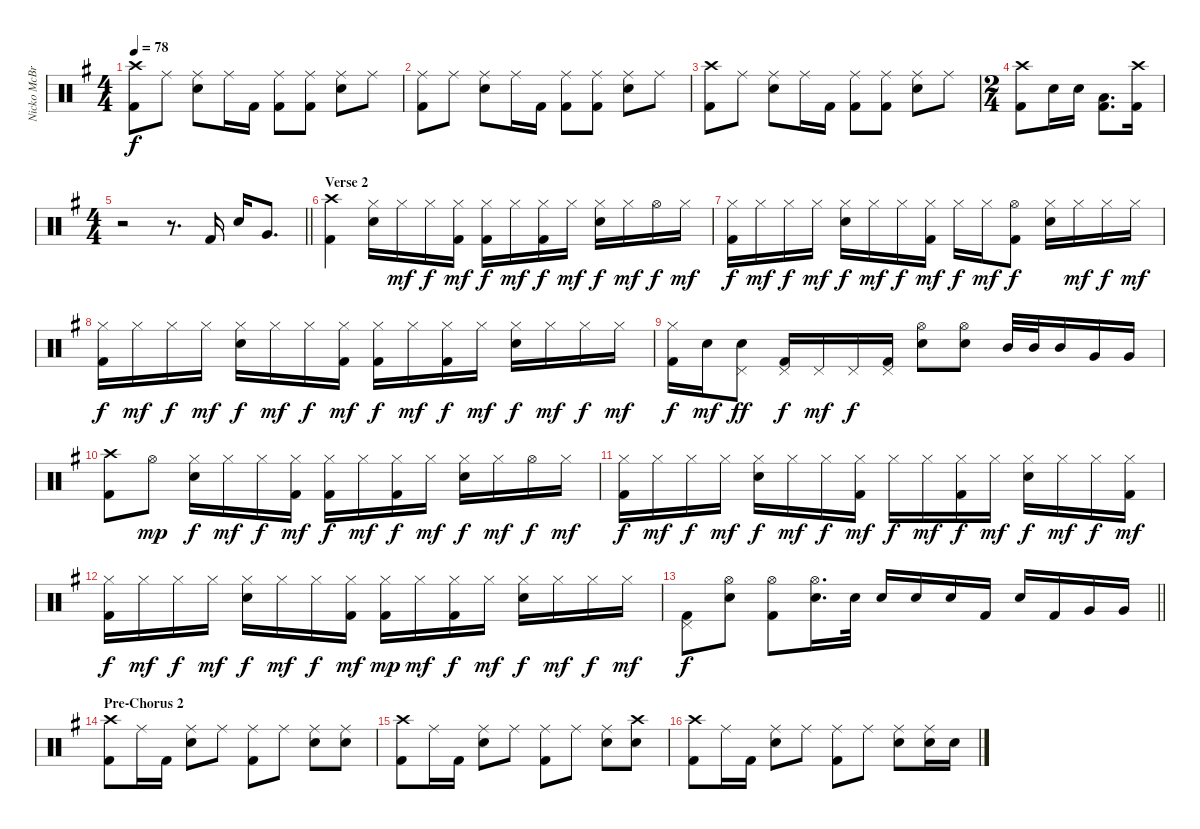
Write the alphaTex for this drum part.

\track ("Nicko McBrain" "Nicko McBr") {instrument percussion}
\staff {score}
\articulation defaults
\ts (4 4)
\tempo 78
\clef neutral
\ks g
("Crash high (hit)" "Kick (hit) 2").8{dy f} "Ride (middle)".8 ("Ride (middle)" "Electric Snare (hit)").8 "Ride (middle)".16 "Kick (hit) 2".16 ("Ride (middle)" "Kick (hit) 2").8 ("Ride (middle)" "Kick (hit) 2").8 ("Ride (middle)" "Electric Snare (hit)").8 "Ride (middle)".8 |
("Ride (middle)" "Kick (hit) 2").8 "Ride (middle)".8 ("Ride (middle)" "Electric Snare (hit)").8 "Ride (middle)".16 "Kick (hit) 2".16 ("Ride (middle)" "Kick (hit) 2").8 ("Ride (middle)" "Kick (hit) 2").8 ("Ride (middle)" "Electric Snare (hit)").8 "Ride (middle)".8 |
("Crash high (hit)" "Kick (hit) 2").8 "Ride (middle)".8 ("Ride (middle)" "Electric Snare (hit)").8 "Ride (middle)".16 "Kick (hit) 2".16 ("Ride (middle)" "Kick (hit) 2").8 ("Ride (middle)" "Kick (hit) 2").8 ("Ride (middle)" "Electric Snare (hit)").8 "Ride (middle)".8 |
\ts (2 4)
("Crash high (hit)" "Kick (hit) 2").8 "Electric Snare (hit)".16 "Electric Snare (hit)".16 ("Low Tom (hit)" "Kick (hit) 2").8{d} ("Crash high (hit)" "Kick (hit) 2").16 |
\ts (4 4)
\barLineRight lightlight
r.2 r.8{d} "Kick (hit) 2".16 "Electric Snare (hit)".16 "Very Low Tom (hit)".8{d} |
\section ("" "Verse 2")
("Crash high (hit)" "Kick (hit) 2").4 ("Hi-Hat (closed)" "Electric Snare (hit)").16 "Hi-Hat (closed)".16{dy mf} "Hi-Hat (closed)".16{dy f} ("Hi-Hat (closed)" "Kick (hit) 2").16{dy mf} ("Hi-Hat (closed)" "Kick (hit) 2").16{dy f} "Hi-Hat (closed)".16{dy mf} ("Hi-Hat (closed)" "Kick (hit) 2").16{dy f} "Hi-Hat (closed)".16{dy mf} ("Hi-Hat (closed)" "Electric Snare (hit)").16{dy f} "Hi-Hat (closed)".16{dy mf} "Hi-Hat (open)".16{dy f} "Hi-Hat (closed)".16{dy mf} |
("Hi-Hat (closed)" "Kick (hit) 2").16{dy f} "Hi-Hat (closed)".16{dy mf} "Hi-Hat (closed)".16{dy f} "Hi-Hat (closed)".16{dy mf} ("Hi-Hat (closed)" "Electric Snare (hit)").16{dy f} "Hi-Hat (closed)".16{dy mf} "Hi-Hat (closed)".16{dy f} ("Hi-Hat (closed)" "Kick (hit) 2").16{dy mf} "Hi-Hat (closed)".16{dy f} "Hi-Hat (closed)".16{dy mf} ("Hi-Hat (open)" "Kick (hit) 2").8{dy f} ("Hi-Hat (closed)" "Electric Snare (hit)").16 "Hi-Hat (closed)".16{dy mf} "Hi-Hat (closed)".16{dy f} "Hi-Hat (closed)".16{dy mf} |
("Hi-Hat (closed)" "Kick (hit) 2").16{dy f} "Hi-Hat (closed)".16{dy mf} "Hi-Hat (closed)".16{dy f} "Hi-Hat (closed)".16{dy mf} ("Hi-Hat (closed)" "Electric Snare (hit)").16{dy f} "Hi-Hat (closed)".16{dy mf} "Hi-Hat (closed)".16{dy f} ("Hi-Hat (closed)" "Kick (hit) 2").16{dy mf} ("Hi-Hat (closed)" "Kick (hit) 2").16{dy f} "Hi-Hat (closed)".16{dy mf} ("Hi-Hat (closed)" "Kick (hit) 2").16{dy f} "Hi-Hat (closed)".16{dy mf} ("Hi-Hat (closed)" "Electric Snare (hit)").16{dy f} "Hi-Hat (closed)".16{dy mf} "Hi-Hat (closed)".16{dy f} "Hi-Hat (closed)".16{dy mf} |
("Hi-Hat (closed)" "Kick (hit) 2").16{dy f} "Electric Snare (hit)".16{dy mf} ("Pedal Hi-Hat (hit)" "Electric Snare (hit)").8{dy ff} ("Pedal Hi-Hat (hit)" "Kick (hit) 2").16{dy f} "Pedal Hi-Hat (hit)".16{dy mf} "Pedal Hi-Hat (hit)".16{dy f} ("Pedal Hi-Hat (hit)" "Kick (hit) 2").16 ("Hi-Hat (open)" "Electric Snare (hit)").8 ("Hi-Hat (open)" "Electric Snare (hit)").8 "Mid Tom (hit)".32 "Mid Tom (hit)".32 "Mid Tom (hit)".16 "Very Low Tom (hit)".16 "Very Low Tom (hit)".16 |
("Crash high (hit)" "Kick (hit) 2").8 "Hi-Hat (open)".8{dy mp} ("Hi-Hat (closed)" "Electric Snare (hit)").16{dy f} "Hi-Hat (closed)".16{dy mf} "Hi-Hat (closed)".16{dy f} ("Hi-Hat (closed)" "Kick (hit) 2").16{dy mf} ("Hi-Hat (closed)" "Kick (hit) 2").16{dy f} "Hi-Hat (closed)".16{dy mf} ("Hi-Hat (closed)" "Kick (hit) 2").16{dy f} "Hi-Hat (closed)".16{dy mf} ("Hi-Hat (closed)" "Electric Snare (hit)").16{dy f} "Hi-Hat (closed)".16{dy mf} "Hi-Hat (open)".16{dy f} "Hi-Hat (closed)".16{dy mf} |
("Hi-Hat (closed)" "Kick (hit) 2").16{dy f} "Hi-Hat (closed)".16{dy mf} "Hi-Hat (closed)".16{dy f} "Hi-Hat (closed)".16{dy mf} ("Hi-Hat (closed)" "Electric Snare (hit)").16{dy f} "Hi-Hat (closed)".16{dy mf} "Hi-Hat (closed)".16{dy f} ("Hi-Hat (closed)" "Kick (hit) 2").16{dy mf} "Hi-Hat (closed)".16{dy f} "Hi-Hat (closed)".16{dy mf} ("Hi-Hat (closed)" "Kick (hit) 2").16{dy f} "Hi-Hat (closed)".16{dy mf} ("Hi-Hat (closed)" "Electric Snare (hit)").16{dy f} "Hi-Hat (closed)".16{dy mf} "Hi-Hat (closed)".16{dy f} ("Hi-Hat (closed)" "Kick (hit) 2").16{dy mf} |
("Hi-Hat (closed)" "Kick (hit) 2").16{dy f} "Hi-Hat (closed)".16{dy mf} "Hi-Hat (closed)".16{dy f} "Hi-Hat (closed)".16{dy mf} ("Hi-Hat (closed)" "Electric Snare (hit)").16{dy f} "Hi-Hat (closed)".16{dy mf} "Hi-Hat (closed)".16{dy f} ("Hi-Hat (closed)" "Kick (hit) 2").16{dy mf} ("Hi-Hat (closed)" "Kick (hit) 2").16{dy mp} "Hi-Hat (closed)".16{dy mf} ("Hi-Hat (closed)" "Kick (hit) 2").16{dy f} "Hi-Hat (closed)".16{dy mf} ("Hi-Hat (closed)" "Electric Snare (hit)").16{dy f} "Hi-Hat (closed)".16{dy mf} "Hi-Hat (closed)".16{dy f} "Hi-Hat (closed)".16{dy mf} |
\barLineRight lightlight
("Pedal Hi-Hat (hit)" "Kick (hit) 2").8{dy f} ("Hi-Hat (open)" "Electric Snare (hit)").8 ("Hi-Hat (open)" "Kick (hit) 2").8 ("Hi-Hat (open)" "Electric Snare (hit)").16{d} "Electric Snare (hit)".32 "Electric Snare (hit)".16 "Electric Snare (hit)".16 "Electric Snare (hit)".16 "Kick (hit) 2".16 "Electric Snare (hit)".16 "Kick (hit) 2".16 "Very Low Tom (hit)".16 "Very Low Tom (hit)".16 |
\section ("" "Pre-Chorus 2")
("Crash high (hit)" "Kick (hit) 2").8 "Ride (middle)".16 "Kick (hit) 2".16 ("Ride (middle)" "Electric Snare (hit)").8 "Ride (middle)".8 ("Ride (middle)" "Kick (hit) 2").8 "Ride (middle)".8 ("Ride (middle)" "Electric Snare (hit)").8 ("Ride (middle)" "Electric Snare (hit)").8 |
("Crash high (hit)" "Kick (hit) 2").8 "Ride (middle)".16 "Kick (hit) 2".16 ("Ride (middle)" "Electric Snare (hit)").8 "Ride (middle)".8 ("Ride (middle)" "Kick (hit) 2").8 "Ride (middle)".8 ("Ride (middle)" "Electric Snare (hit)").8 ("Crash high (hit)" "Electric Snare (hit)").8 |
("Crash high (hit)" "Kick (hit) 2").8 "Ride (middle)".16 "Kick (hit) 2".16 ("Ride (middle)" "Electric Snare (hit)").8 "Ride (middle)".8 ("Ride (middle)" "Kick (hit) 2").8 "Ride (middle)".8 ("Ride (middle)" "Electric Snare (hit)").8 ("Ride (middle)" "Electric Snare (hit)").16 "Electric Snare (hit)".16
